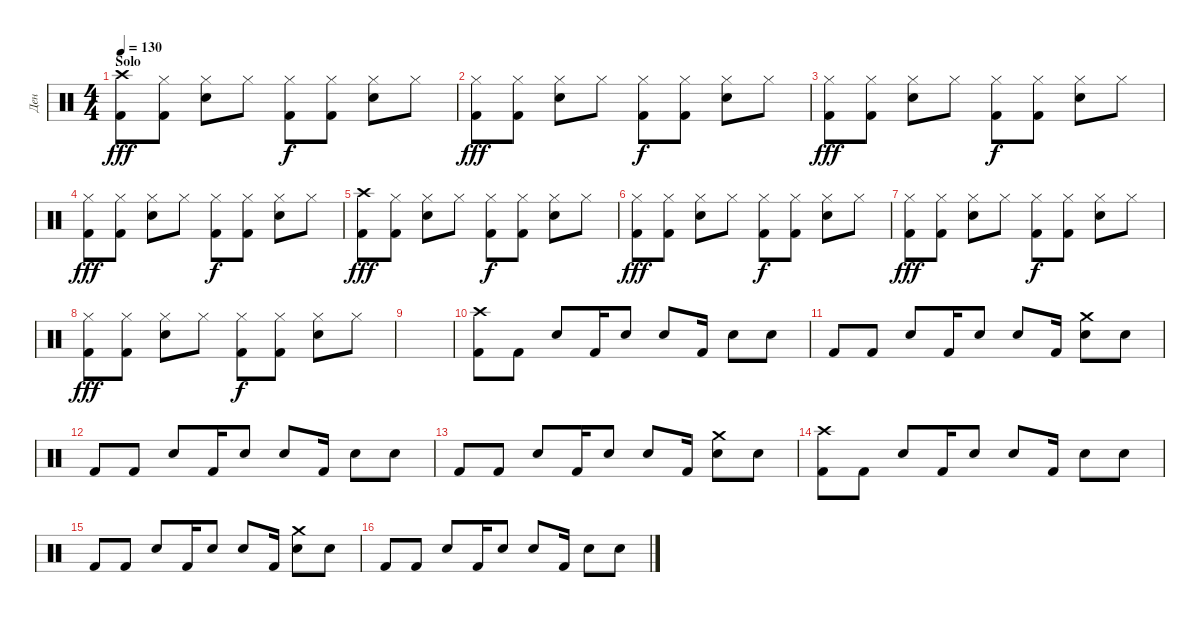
\track ("Ден" "Ден") {instrument percussion}
\staff {score}
\articulation defaults
\ts (4 4)
\section ("" "Solo")
\tempo 130
\clef neutral
\ks c
("Crash high (hit)" "Kick (hit) 2").8{dy fff} ("Hi-Hat (closed)" "Kick (hit) 2").8 ("Hi-Hat (closed)" "Snare (hit) 2").8 "Hi-Hat (closed)".8 ("Hi-Hat (closed)" "Kick (hit) 2").8{dy f} ("Hi-Hat (closed)" "Kick (hit) 2").8 ("Hi-Hat (closed)" "Snare (hit) 2").8 "Hi-Hat (closed)".8 |
("Hi-Hat (closed)" "Kick (hit) 2").8{dy fff} ("Hi-Hat (closed)" "Kick (hit) 2").8 ("Hi-Hat (closed)" "Snare (hit) 2").8 "Hi-Hat (closed)".8 ("Hi-Hat (closed)" "Kick (hit) 2").8{dy f} ("Hi-Hat (closed)" "Kick (hit) 2").8 ("Hi-Hat (closed)" "Snare (hit) 2").8 "Hi-Hat (closed)".8 |
("Hi-Hat (closed)" "Kick (hit) 2").8{dy fff} ("Hi-Hat (closed)" "Kick (hit) 2").8 ("Hi-Hat (closed)" "Snare (hit) 2").8 "Hi-Hat (closed)".8 ("Hi-Hat (closed)" "Kick (hit) 2").8{dy f} ("Hi-Hat (closed)" "Kick (hit) 2").8 ("Hi-Hat (closed)" "Snare (hit) 2").8 "Hi-Hat (closed)".8 |
("Hi-Hat (closed)" "Kick (hit) 2").8{dy fff} ("Hi-Hat (closed)" "Kick (hit) 2").8 ("Hi-Hat (closed)" "Snare (hit) 2").8 "Hi-Hat (closed)".8 ("Hi-Hat (closed)" "Kick (hit) 2").8{dy f} ("Hi-Hat (closed)" "Kick (hit) 2").8 ("Hi-Hat (closed)" "Snare (hit) 2").8 "Hi-Hat (closed)".8 |
("Crash high (hit)" "Kick (hit) 2").8{dy fff} ("Hi-Hat (closed)" "Kick (hit) 2").8 ("Hi-Hat (closed)" "Snare (hit) 2").8 "Hi-Hat (closed)".8 ("Hi-Hat (closed)" "Kick (hit) 2").8{dy f} ("Hi-Hat (closed)" "Kick (hit) 2").8 ("Hi-Hat (closed)" "Snare (hit) 2").8 "Hi-Hat (closed)".8 |
("Hi-Hat (closed)" "Kick (hit) 2").8{dy fff} ("Hi-Hat (closed)" "Kick (hit) 2").8 ("Hi-Hat (closed)" "Snare (hit) 2").8 "Hi-Hat (closed)".8 ("Hi-Hat (closed)" "Kick (hit) 2").8{dy f} ("Hi-Hat (closed)" "Kick (hit) 2").8 ("Hi-Hat (closed)" "Snare (hit) 2").8 "Hi-Hat (closed)".8 |
("Hi-Hat (closed)" "Kick (hit) 2").8{dy fff} ("Hi-Hat (closed)" "Kick (hit) 2").8 ("Hi-Hat (closed)" "Snare (hit) 2").8 "Hi-Hat (closed)".8 ("Hi-Hat (closed)" "Kick (hit) 2").8{dy f} ("Hi-Hat (closed)" "Kick (hit) 2").8 ("Hi-Hat (closed)" "Snare (hit) 2").8 "Hi-Hat (closed)".8 |
("Hi-Hat (closed)" "Kick (hit) 2").8{dy fff} ("Hi-Hat (closed)" "Kick (hit) 2").8 ("Hi-Hat (closed)" "Snare (hit) 2").8 "Hi-Hat (closed)".8 ("Hi-Hat (closed)" "Kick (hit) 2").8{dy f} ("Hi-Hat (closed)" "Kick (hit) 2").8 ("Hi-Hat (closed)" "Snare (hit) 2").8 "Hi-Hat (closed)".8 |
|
("Crash high (hit)" "Kick (hit) 2").8 "Kick (hit) 2".8 "Snare (hit) 2".8 "Kick (hit) 2".16 "Snare (hit) 2".8 "Snare (hit) 2".8 "Kick (hit) 2".16 "Snare (hit) 2".8 "Snare (hit)".8 |
"Kick (hit) 2".8 "Kick (hit) 2".8 "Snare (hit) 2".8 "Kick (hit) 2".16 "Snare (hit) 2".8 "Snare (hit) 2".8 "Kick (hit) 2".16 ("Crash medium (hit)" "Snare (hit) 2").8 "Snare (hit)".8 |
"Kick (hit) 2".8 "Kick (hit) 2".8 "Snare (hit) 2".8 "Kick (hit) 2".16 "Snare (hit) 2".8 "Snare (hit) 2".8 "Kick (hit) 2".16 "Snare (hit) 2".8 "Snare (hit)".8 |
"Kick (hit) 2".8 "Kick (hit) 2".8 "Snare (hit) 2".8 "Kick (hit) 2".16 "Snare (hit) 2".8 "Snare (hit) 2".8 "Kick (hit) 2".16 ("Crash medium (hit)" "Snare (hit) 2").8 "Snare (hit)".8 |
("Crash high (hit)" "Kick (hit) 2").8 "Kick (hit) 2".8 "Snare (hit) 2".8 "Kick (hit) 2".16 "Snare (hit) 2".8 "Snare (hit) 2".8 "Kick (hit) 2".16 "Snare (hit) 2".8 "Snare (hit)".8 |
"Kick (hit) 2".8 "Kick (hit) 2".8 "Snare (hit) 2".8 "Kick (hit) 2".16 "Snare (hit) 2".8 "Snare (hit) 2".8 "Kick (hit) 2".16 ("Crash medium (hit)" "Snare (hit) 2").8 "Snare (hit)".8 |
"Kick (hit) 2".8 "Kick (hit) 2".8 "Snare (hit) 2".8 "Kick (hit) 2".16 "Snare (hit) 2".8 "Snare (hit) 2".8 "Kick (hit) 2".16 "Snare (hit) 2".8 "Snare (hit)".8
